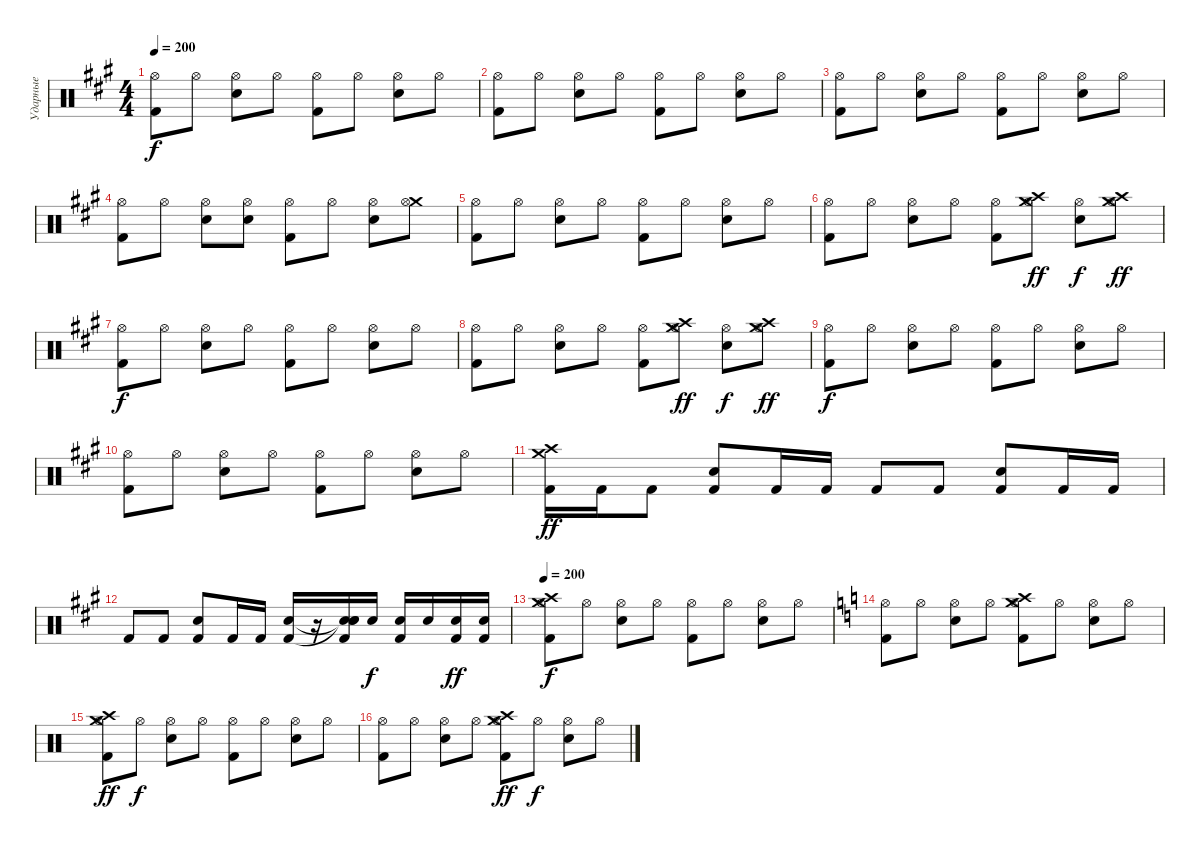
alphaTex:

\track ("Ударные" "Ударные") {instrument percussion}
\staff {score}
\articulation defaults
\ts (4 4)
\tempo 200
\clef neutral
\ks f#minor
("Hi-Hat (open)" "Kick (hit) 2").8{dy f} "Hi-Hat (open)".8 ("Hi-Hat (open)" "Electric Snare (hit)").8 "Hi-Hat (open)".8 ("Hi-Hat (open)" "Kick (hit) 2").8 "Hi-Hat (open)".8 ("Hi-Hat (open)" "Electric Snare (hit)").8 "Hi-Hat (open)".8 |
("Hi-Hat (open)" "Kick (hit) 2").8 "Hi-Hat (open)".8 ("Hi-Hat (open)" "Electric Snare (hit)").8 "Hi-Hat (open)".8 ("Hi-Hat (open)" "Kick (hit) 2").8 "Hi-Hat (open)".8 ("Hi-Hat (open)" "Electric Snare (hit)").8 "Hi-Hat (open)".8 |
("Hi-Hat (open)" "Kick (hit) 2").8 "Hi-Hat (open)".8 ("Hi-Hat (open)" "Electric Snare (hit)").8 "Hi-Hat (open)".8 ("Hi-Hat (open)" "Kick (hit) 2").8 "Hi-Hat (open)".8 ("Hi-Hat (open)" "Electric Snare (hit)").8 "Hi-Hat (open)".8 |
("Hi-Hat (open)" "Kick (hit) 2").8 "Hi-Hat (open)".8 ("Hi-Hat (open)" "Electric Snare (hit)").8 ("Hi-Hat (open)" "Electric Snare (hit)").8 ("Hi-Hat (open)" "Kick (hit) 2").8 "Hi-Hat (open)".8 ("Hi-Hat (open)" "Electric Snare (hit)").8 ("Crash medium (hit)" "Hi-Hat (open)").8 |
("Hi-Hat (open)" "Kick (hit) 2").8 "Hi-Hat (open)".8 ("Hi-Hat (open)" "Electric Snare (hit)").8 "Hi-Hat (open)".8 ("Hi-Hat (open)" "Kick (hit) 2").8 "Hi-Hat (open)".8 ("Hi-Hat (open)" "Electric Snare (hit)").8 "Hi-Hat (open)".8 |
("Hi-Hat (open)" "Kick (hit) 2").8 "Hi-Hat (open)".8 ("Hi-Hat (open)" "Electric Snare (hit)").8 "Hi-Hat (open)".8 ("Hi-Hat (open)" "Kick (hit) 2").8 ("Crash medium (hit)" "Crash high (hit)" "Hi-Hat (open)").8{dy ff} ("Hi-Hat (open)" "Electric Snare (hit)").8{dy f} ("Crash medium (hit)" "Crash high (hit)" "Hi-Hat (open)").8{dy ff} |
("Hi-Hat (open)" "Kick (hit) 2").8{dy f} "Hi-Hat (open)".8 ("Hi-Hat (open)" "Electric Snare (hit)").8 "Hi-Hat (open)".8 ("Hi-Hat (open)" "Kick (hit) 2").8 "Hi-Hat (open)".8 ("Hi-Hat (open)" "Electric Snare (hit)").8 "Hi-Hat (open)".8 |
("Hi-Hat (open)" "Kick (hit) 2").8 "Hi-Hat (open)".8 ("Hi-Hat (open)" "Electric Snare (hit)").8 "Hi-Hat (open)".8 ("Hi-Hat (open)" "Kick (hit) 2").8 ("Crash medium (hit)" "Crash high (hit)" "Hi-Hat (open)").8{dy ff} ("Hi-Hat (open)" "Electric Snare (hit)").8{dy f} ("Crash medium (hit)" "Crash high (hit)" "Hi-Hat (open)").8{dy ff} |
("Hi-Hat (open)" "Kick (hit) 2").8{dy f} "Hi-Hat (open)".8 ("Hi-Hat (open)" "Electric Snare (hit)").8 "Hi-Hat (open)".8 ("Hi-Hat (open)" "Kick (hit) 2").8 "Hi-Hat (open)".8 ("Hi-Hat (open)" "Electric Snare (hit)").8 "Hi-Hat (open)".8 |
("Hi-Hat (open)" "Kick (hit) 2").8 "Hi-Hat (open)".8 ("Hi-Hat (open)" "Electric Snare (hit)").8 "Hi-Hat (open)".8 ("Hi-Hat (open)" "Kick (hit) 2").8 "Hi-Hat (open)".8 ("Hi-Hat (open)" "Electric Snare (hit)").8 "Hi-Hat (open)".8 |
("Crash high (hit)" "Crash medium (hit)" "Kick (hit) 2").16{dy ff} "Kick (hit) 2".16 "Kick (hit) 2".8 ("Electric Snare (hit)" "Kick (hit) 2").8 "Kick (hit) 2".16 "Kick (hit) 2".16 "Kick (hit) 2".8 "Kick (hit) 2".8 ("Electric Snare (hit)" "Kick (hit) 2").8 "Kick (hit) 2".16 "Kick (hit) 2".16 |
"Kick (hit) 2".8 "Kick (hit) 2".8 ("Electric Snare (hit)" "Kick (hit) 2").8 "Kick (hit) 2".16 "Kick (hit) 2".16 ("Electric Snare (hit)" "Kick (hit) 2").16 r.16 ("Snare (hit)"{t} "Snare (hit)"{t} "Electric Snare (hit)" "Kick (hit) 2").16 "Electric Snare (hit)".16{dy f} ("Electric Snare (hit)" "Kick (hit) 2").16 "Electric Snare (hit)".16 ("Electric Snare (hit)" "Kick (hit) 2").16{dy ff} ("Electric Snare (hit)" "Kick (hit) 2").16 |
\tempo 200
("Crash high (hit)" "Crash medium (hit)" "Hi-Hat (open)" "Kick (hit) 2").8{dy f} "Hi-Hat (open)".8 ("Hi-Hat (open)" "Electric Snare (hit)").8 "Hi-Hat (open)".8 ("Hi-Hat (open)" "Kick (hit) 2").8 "Hi-Hat (open)".8 ("Hi-Hat (open)" "Electric Snare (hit)").8 "Hi-Hat (open)".8 |
\ks c
("Hi-Hat (open)" "Kick (hit) 2").8 "Hi-Hat (open)".8 ("Hi-Hat (open)" "Electric Snare (hit)").8 "Hi-Hat (open)".8 ("Crash high (hit)" "Crash medium (hit)" "Hi-Hat (open)" "Kick (hit) 2").8 "Hi-Hat (open)".8 ("Hi-Hat (open)" "Electric Snare (hit)").8 "Hi-Hat (open)".8 |
("Crash high (hit)" "Crash medium (hit)" "Hi-Hat (open)" "Kick (hit) 2").8{dy ff} "Hi-Hat (open)".8{dy f} ("Hi-Hat (open)" "Electric Snare (hit)").8 "Hi-Hat (open)".8 ("Hi-Hat (open)" "Kick (hit) 2").8 "Hi-Hat (open)".8 ("Hi-Hat (open)" "Electric Snare (hit)").8 "Hi-Hat (open)".8 |
("Hi-Hat (open)" "Kick (hit) 2").8 "Hi-Hat (open)".8 ("Hi-Hat (open)" "Electric Snare (hit)").8 "Hi-Hat (open)".8 ("Crash high (hit)" "Crash medium (hit)" "Hi-Hat (open)" "Kick (hit) 2").8{dy ff} "Hi-Hat (open)".8{dy f} ("Hi-Hat (open)" "Electric Snare (hit)").8 "Hi-Hat (open)".8
